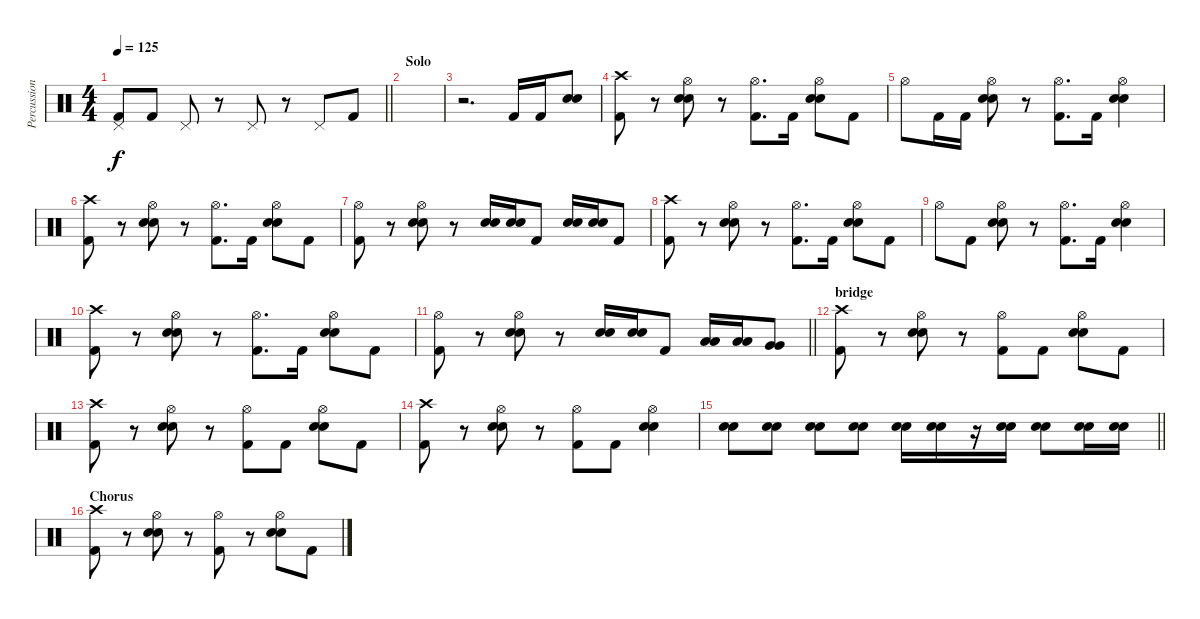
\track ("Percussion" "Percussion") {instrument percussion}
\staff {score}
\articulation defaults
\ts (4 4)
\tempo 125
\clef neutral
\barLineRight lightlight
\ks c
("Pedal Hi-Hat (hit)" "Kick (hit) 2").8{dy f} "Kick (hit) 2".8 "Pedal Hi-Hat (hit)".8 r.8 "Pedal Hi-Hat (hit)".8 r.8 "Pedal Hi-Hat (hit)".8 "Kick (hit) 2".8 |
\section ("" "Solo")
|
r.2{d} "Kick (hit) 2".16 "Kick (hit) 2".16 ("Snare (hit) 2" "Electric Snare (hit)").8 |
("Crash high (hit)" "Kick (hit) 2").8 r.8 ("Hi-Hat (open)" "Snare (hit) 2" "Electric Snare (hit)").8 r.8 ("Hi-Hat (open)" "Kick (hit) 2").8{d} "Kick (hit) 2".16 ("Hi-Hat (open)" "Snare (hit) 2" "Electric Snare (hit)").8 "Kick (hit) 2".8 |
"Hi-Hat (open)".8 "Kick (hit) 2".16 "Kick (hit) 2".16 ("Hi-Hat (open)" "Snare (hit) 2" "Electric Snare (hit)").8 r.8 ("Hi-Hat (open)" "Kick (hit) 2").8{d} "Kick (hit) 2".16 ("Hi-Hat (open)" "Snare (hit) 2" "Electric Snare (hit)").4 |
("Crash high (hit)" "Kick (hit) 2").8 r.8 ("Hi-Hat (open)" "Snare (hit) 2" "Electric Snare (hit)").8 r.8 ("Hi-Hat (open)" "Kick (hit) 2").8{d} "Kick (hit) 2".16 ("Hi-Hat (open)" "Snare (hit) 2" "Electric Snare (hit)").8 "Kick (hit) 2".8 |
("Hi-Hat (open)" "Kick (hit) 2").8 r.8 ("Hi-Hat (open)" "Snare (hit) 2" "Electric Snare (hit)").8 r.8 ("Snare (hit) 2" "Electric Snare (hit)").16 ("Snare (hit) 2" "Electric Snare (hit)").16 "Kick (hit) 2".8 ("Snare (hit) 2" "Electric Snare (hit)").16 ("Snare (hit) 2" "Electric Snare (hit)").16 "Kick (hit) 2".8 |
("Crash high (hit)" "Kick (hit) 2").8 r.8 ("Hi-Hat (open)" "Snare (hit) 2" "Electric Snare (hit)").8 r.8 ("Hi-Hat (open)" "Kick (hit) 2").8{d} "Kick (hit) 2".16 ("Hi-Hat (open)" "Snare (hit) 2" "Electric Snare (hit)").8 "Kick (hit) 2".8 |
"Hi-Hat (open)".8 "Kick (hit) 2".8 ("Hi-Hat (open)" "Snare (hit) 2" "Electric Snare (hit)").8 r.8 ("Hi-Hat (open)" "Kick (hit) 2").8{d} "Kick (hit) 2".16 ("Hi-Hat (open)" "Snare (hit) 2" "Electric Snare (hit)").4 |
("Crash high (hit)" "Kick (hit) 2").8 r.8 ("Hi-Hat (open)" "Snare (hit) 2" "Electric Snare (hit)").8 r.8 ("Hi-Hat (open)" "Kick (hit) 2").8{d} "Kick (hit) 2".16 ("Hi-Hat (open)" "Snare (hit) 2" "Electric Snare (hit)").8 "Kick (hit) 2".8 |
\barLineRight lightlight
("Hi-Hat (open)" "Kick (hit) 2").8 r.8 ("Hi-Hat (open)" "Snare (hit) 2" "Electric Snare (hit)").8 r.8 ("Snare (hit) 2" "Electric Snare (hit)").16 ("Snare (hit) 2" "Electric Snare (hit)").16 "Kick (hit) 2".8 ("Low Tom (hit)" "Low Tom (hit)").16 ("Low Tom (hit)" "Low Tom (hit)").16 ("Very Low Tom (hit)" "Very Low Tom (hit)").8 |
\section ("" "bridge")
("Crash high (hit)" "Kick (hit) 2").8 r.8 ("Hi-Hat (open)" "Snare (hit) 2" "Electric Snare (hit)").8 r.8 ("Hi-Hat (open)" "Kick (hit) 2").8 "Kick (hit) 2".8 ("Hi-Hat (open)" "Snare (hit) 2" "Electric Snare (hit)").8 "Kick (hit) 2".8 |
("Crash high (hit)" "Kick (hit) 2").8 r.8 ("Hi-Hat (open)" "Snare (hit) 2" "Electric Snare (hit)").8 r.8 ("Hi-Hat (open)" "Kick (hit) 2").8 "Kick (hit) 2".8 ("Hi-Hat (open)" "Snare (hit) 2" "Electric Snare (hit)").8 "Kick (hit) 2".8 |
("Crash high (hit)" "Kick (hit) 2").8 r.8 ("Hi-Hat (open)" "Snare (hit) 2" "Electric Snare (hit)").8 r.8 ("Hi-Hat (open)" "Kick (hit) 2").8 "Kick (hit) 2".8 ("Hi-Hat (open)" "Snare (hit) 2" "Electric Snare (hit)").4 |
\barLineRight lightlight
("Snare (hit) 2" "Electric Snare (hit)").8 ("Snare (hit) 2" "Electric Snare (hit)").8 ("Snare (hit) 2" "Electric Snare (hit)").8 ("Snare (hit) 2" "Electric Snare (hit)").8 ("Snare (hit) 2" "Electric Snare (hit)").16 ("Snare (hit) 2" "Electric Snare (hit)").16 r.16 ("Snare (hit) 2" "Electric Snare (hit)").16 ("Snare (hit) 2" "Electric Snare (hit)").8 ("Snare (hit) 2" "Electric Snare (hit)").16 ("Snare (hit) 2" "Electric Snare (hit)").16 |
\section ("" "Chorus")
("Crash high (hit)" "Kick (hit) 2").8 r.8 ("Hi-Hat (open)" "Snare (hit) 2" "Electric Snare (hit)").8 r.8 ("Hi-Hat (open)" "Kick (hit) 2").8 r.8 ("Hi-Hat (open)" "Snare (hit) 2" "Electric Snare (hit)").8 "Kick (hit) 2".8
